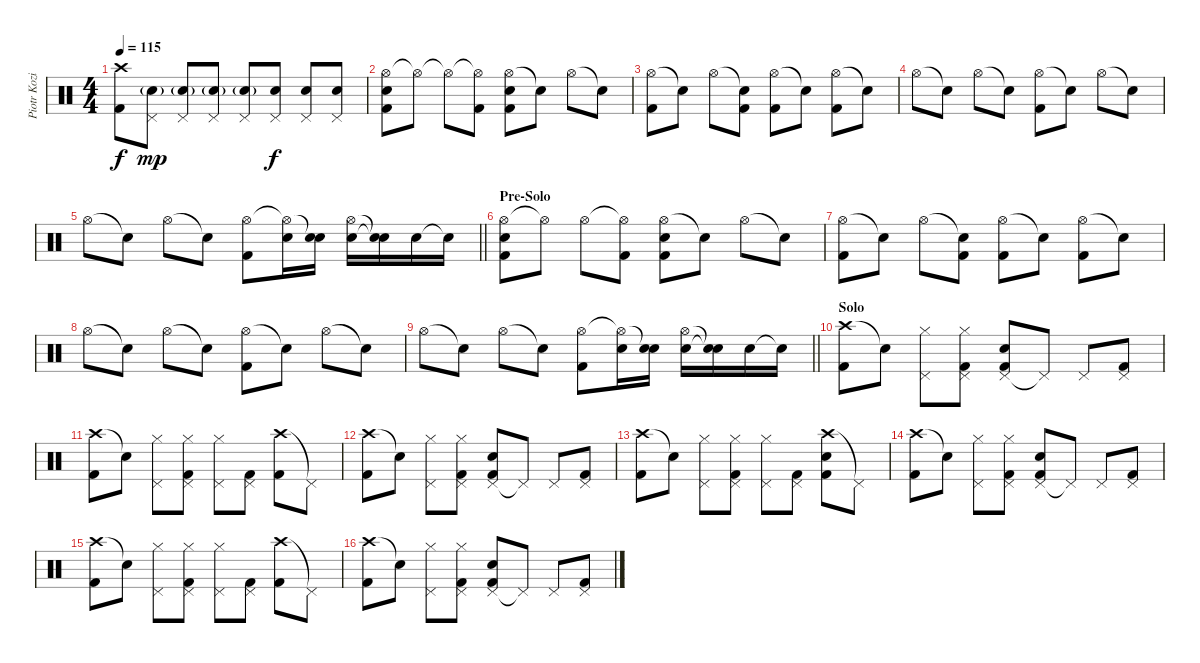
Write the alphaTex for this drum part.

\track ("Piotr Kozieradzki" "Piotr Kozi") {instrument percussion}
\staff {score}
\articulation defaults
\ts (4 4)
\tempo 115
\clef neutral
\ks c
("Crash high (hit)" "Kick (hit) 2").8{dy f} ("Pedal Hi-Hat (hit)" "Electric Snare (hit)"{g}).8{dy mp} ("Pedal Hi-Hat (hit)" "Electric Snare (hit)"{g}).8 ("Pedal Hi-Hat (hit)" "Electric Snare (hit)"{g}).8 ("Pedal Hi-Hat (hit)" "Electric Snare (hit)"{g}).8 ("Pedal Hi-Hat (hit)" "Electric Snare (hit)").8{dy f} ("Pedal Hi-Hat (hit)" "Electric Snare (hit)").8 ("Pedal Hi-Hat (hit)" "Electric Snare (hit)").8 |
("Hi-Hat (open)" "Electric Snare (hit)" "Kick (hit) 2").8 "Hi-Hat (open)"{t}.8 "Hi-Hat (open)"{t}.8 ("Hi-Hat (open)"{t} "Kick (hit) 2").8 ("Hi-Hat (open)" "Electric Snare (hit)" "Kick (hit) 2").8 "Snare (hit)"{t}.8 "Hi-Hat (open)".8 "Snare (hit)"{t}.8 |
("Hi-Hat (open)" "Kick (hit) 2").8 "Snare (hit)"{t}.8 "Hi-Hat (open)".8 ("Snare (hit)"{t} "Kick (hit) 2").8 ("Hi-Hat (open)" "Kick (hit) 2").8 "Snare (hit)"{t}.8 ("Hi-Hat (open)" "Kick (hit) 2").8 "Snare (hit)"{t}.8 |
"Hi-Hat (open)".8 "Snare (hit)"{t}.8 "Hi-Hat (open)".8 "Snare (hit)"{t}.8 ("Hi-Hat (open)" "Kick (hit) 2").8 "Snare (hit)"{t}.8 "Hi-Hat (open)".8 "Snare (hit)"{t}.8 |
\barLineRight lightlight "Hi-Hat (open)".8 "Snare (hit)"{t}.8 "Hi-Hat (open)".8 "Snare (hit)"{t}.8
("Hi-Hat (open)" "Kick (hit) 2").8 ("Hi-Hat (open)"{t} "Electric Snare (hit)").16 ("Snare (hit)"{t} "Electric Snare (hit)").16 ("Hi-Hat (open)" "Electric Snare (hit)").16 ("Snare (hit)"{t} "Snare (hit)"{t}).16 "Electric Snare (hit)".16 "Snare (hit)"{t}.16 |
\section ("" "Pre-Solo")
("Hi-Hat (open)" "Electric Snare (hit)" "Kick (hit) 2").8 "Hi-Hat (open)"{t}.8 "Hi-Hat (open)".8 ("Hi-Hat (open)"{t} "Kick (hit) 2").8 ("Hi-Hat (open)" "Electric Snare (hit)" "Kick (hit) 2").8 "Snare (hit)"{t}.8 "Hi-Hat (open)".8 "Snare (hit)"{t}.8 |
("Hi-Hat (open)" "Kick (hit) 2").8 "Snare (hit)"{t}.8 "Hi-Hat (open)".8 ("Snare (hit)"{t} "Kick (hit) 2").8 ("Hi-Hat (open)" "Kick (hit) 2").8 "Snare (hit)"{t}.8 ("Hi-Hat (open)" "Kick (hit) 2").8 "Snare (hit)"{t}.8 |
"Hi-Hat (open)".8 "Snare (hit)"{t}.8 "Hi-Hat (open)".8 "Snare (hit)"{t}.8 ("Hi-Hat (open)" "Kick (hit) 2").8 "Snare (hit)"{t}.8 "Hi-Hat (open)".8 "Snare (hit)"{t}.8 |
\barLineRight lightlight "Hi-Hat (open)".8 "Snare (hit)"{t}.8 "Hi-Hat (open)".8 "Snare (hit)"{t}.8
("Hi-Hat (open)" "Kick (hit) 2").8 ("Hi-Hat (open)"{t} "Electric Snare (hit)").16 ("Snare (hit)"{t} "Electric Snare (hit)").16 ("Hi-Hat (open)" "Electric Snare (hit)").16 ("Snare (hit)"{t} "Snare (hit)"{t}).16 "Electric Snare (hit)".16 "Snare (hit)"{t}.16 |
\section ("" "Solo")
("Crash high (hit)" "Kick (hit) 2").8 "Snare (hit)"{t}.8 ("Pedal Hi-Hat (hit)" "Hi-Hat (closed)").8 ("Pedal Hi-Hat (hit)" "Hi-Hat (closed)" "Kick (hit) 2").8 ("Pedal Hi-Hat (hit)" "Electric Snare (hit)" "Kick (hit) 2").8 "Pedal Hi-Hat (hit)"{t}.8 "Pedal Hi-Hat (hit)".8 ("Pedal Hi-Hat (hit)" "Kick (hit) 2").8 |
("Crash high (hit)" "Kick (hit) 2").8 "Snare (hit)"{t}.8 ("Pedal Hi-Hat (hit)" "Hi-Hat (closed)").8 ("Pedal Hi-Hat (hit)" "Hi-Hat (closed)" "Kick (hit) 2").8 ("Pedal Hi-Hat (hit)" "Hi-Hat (closed)").8 ("Pedal Hi-Hat (hit)" "Kick (hit) 2").8 ("Crash high (hit)" "Kick (hit) 2").8 "Pedal Hi-Hat (hit)"{t}.8 |
("Crash high (hit)" "Kick (hit) 2").8 "Snare (hit)"{t}.8 ("Pedal Hi-Hat (hit)" "Hi-Hat (closed)").8 ("Pedal Hi-Hat (hit)" "Hi-Hat (closed)" "Kick (hit) 2").8 ("Pedal Hi-Hat (hit)" "Electric Snare (hit)" "Kick (hit) 2").8 "Pedal Hi-Hat (hit)"{t}.8 "Pedal Hi-Hat (hit)".8 ("Pedal Hi-Hat (hit)" "Kick (hit) 2").8 |
("Crash high (hit)" "Kick (hit) 2").8 "Snare (hit)"{t}.8 ("Pedal Hi-Hat (hit)" "Hi-Hat (closed)").8 ("Pedal Hi-Hat (hit)" "Hi-Hat (closed)" "Kick (hit) 2").8 ("Pedal Hi-Hat (hit)" "Hi-Hat (closed)").8 ("Pedal Hi-Hat (hit)" "Kick (hit) 2").8 ("Crash high (hit)" "Electric Snare (hit)" "Kick (hit) 2").8 "Pedal Hi-Hat (hit)"{t}.8 |
("Crash high (hit)" "Kick (hit) 2").8 "Snare (hit)"{t}.8 ("Pedal Hi-Hat (hit)" "Hi-Hat (closed)").8 ("Pedal Hi-Hat (hit)" "Hi-Hat (closed)" "Kick (hit) 2").8 ("Pedal Hi-Hat (hit)" "Electric Snare (hit)" "Kick (hit) 2").8 "Pedal Hi-Hat (hit)"{t}.8 "Pedal Hi-Hat (hit)".8 ("Pedal Hi-Hat (hit)" "Kick (hit) 2").8 |
("Crash high (hit)" "Kick (hit) 2").8 "Snare (hit)"{t}.8 ("Pedal Hi-Hat (hit)" "Hi-Hat (closed)").8 ("Pedal Hi-Hat (hit)" "Hi-Hat (closed)" "Kick (hit) 2").8 ("Pedal Hi-Hat (hit)" "Hi-Hat (closed)").8 ("Pedal Hi-Hat (hit)" "Kick (hit) 2").8 ("Crash high (hit)" "Kick (hit) 2").8 "Pedal Hi-Hat (hit)"{t}.8 |
("Crash high (hit)" "Kick (hit) 2").8 "Snare (hit)"{t}.8 ("Pedal Hi-Hat (hit)" "Hi-Hat (closed)").8 ("Pedal Hi-Hat (hit)" "Hi-Hat (closed)" "Kick (hit) 2").8 ("Pedal Hi-Hat (hit)" "Electric Snare (hit)" "Kick (hit) 2").8 "Pedal Hi-Hat (hit)"{t}.8 "Pedal Hi-Hat (hit)".8 ("Pedal Hi-Hat (hit)" "Kick (hit) 2").8
